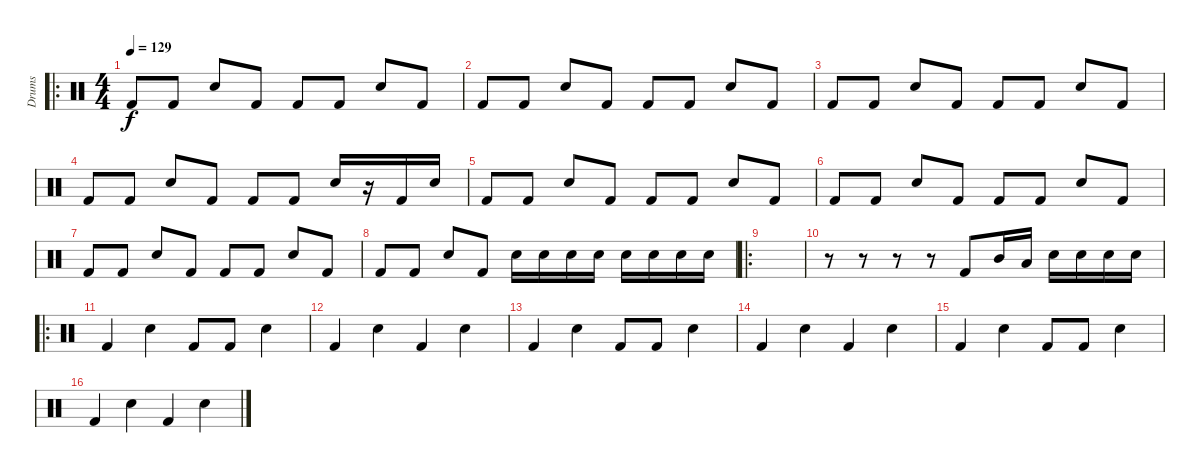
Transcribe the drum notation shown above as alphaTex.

\track ("Drums" "Drums") {instrument percussion}
\staff {score}
\articulation defaults
\ro
\ts (4 4)
\tempo 129
\clef neutral
\ks c "Kick (hit) 2".8{dy f} "Kick (hit) 2".8 "Snare (hit) 2".8 "Kick (hit) 2".8 "Kick (hit) 2".8 "Kick (hit) 2".8 "Snare (hit) 2".8 "Kick (hit) 2".8
|
"Kick (hit) 2".8 "Kick (hit) 2".8 "Snare (hit) 2".8 "Kick (hit) 2".8 "Kick (hit) 2".8 "Kick (hit) 2".8 "Snare (hit) 2".8 "Kick (hit) 2".8 |
"Kick (hit) 2".8 "Kick (hit) 2".8 "Snare (hit) 2".8 "Kick (hit) 2".8 "Kick (hit) 2".8 "Kick (hit) 2".8 "Snare (hit) 2".8 "Kick (hit) 2".8 |
"Kick (hit) 2".8 "Kick (hit) 2".8 "Snare (hit) 2".8 "Kick (hit) 2".8 "Kick (hit) 2".8 "Kick (hit) 2".8 "Snare (hit) 2".16 r.16 "Kick (hit) 2".16 "Snare (hit) 2".16 |
"Kick (hit) 2".8 "Kick (hit) 2".8 "Snare (hit) 2".8 "Kick (hit) 2".8 "Kick (hit) 2".8 "Kick (hit) 2".8 "Snare (hit) 2".8 "Kick (hit) 2".8 |
"Kick (hit) 2".8 "Kick (hit) 2".8 "Snare (hit) 2".8 "Kick (hit) 2".8 "Kick (hit) 2".8 "Kick (hit) 2".8 "Snare (hit) 2".8 "Kick (hit) 2".8 |
"Kick (hit) 2".8 "Kick (hit) 2".8 "Snare (hit) 2".8 "Kick (hit) 2".8 "Kick (hit) 2".8 "Kick (hit) 2".8 "Snare (hit) 2".8 "Kick (hit) 2".8 |
"Kick (hit) 2".8 "Kick (hit) 2".8 "Snare (hit) 2".8 "Kick (hit) 2".8 "Snare (hit) 2".16 "Snare (hit) 2".16 "Snare (hit) 2".16 "Snare (hit) 2".16 "Snare (hit) 2".16 "Snare (hit) 2".16 "Snare (hit) 2".16 "Snare (hit) 2".16 |
\ro
|
r.8 r.8 r.8 r.8 "Kick (hit) 2".8 "Mid Tom (hit)".16 "Low Tom (hit)".16 "Snare (hit) 2".16 "Snare (hit) 2".16 "Snare (hit) 2".16 "Snare (hit) 2".16 |
\ro "Kick (hit) 2".4 "Snare (hit) 2".4 "Kick (hit) 2".8 "Kick (hit) 2".8 "Snare (hit) 2".4
|
"Kick (hit) 2".4 "Snare (hit) 2".4 "Kick (hit) 2".4 "Snare (hit) 2".4 |
"Kick (hit) 2".4 "Snare (hit) 2".4 "Kick (hit) 2".8 "Kick (hit) 2".8 "Snare (hit) 2".4 |
"Kick (hit) 2".4 "Snare (hit) 2".4 "Kick (hit) 2".4 "Snare (hit) 2".4 |
"Kick (hit) 2".4 "Snare (hit) 2".4 "Kick (hit) 2".8 "Kick (hit) 2".8 "Snare (hit) 2".4 |
"Kick (hit) 2".4 "Snare (hit) 2".4 "Kick (hit) 2".4 "Snare (hit) 2".4
